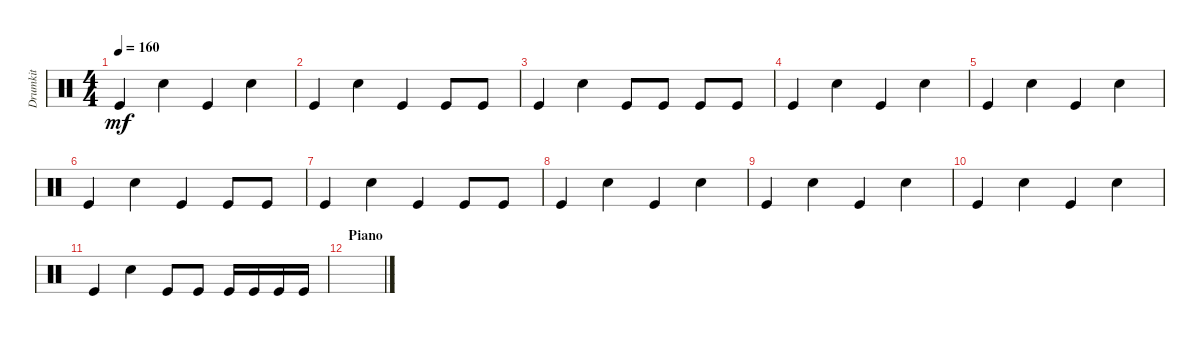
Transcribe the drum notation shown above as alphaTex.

\track ("Drumkit" "Drumkit") {instrument percussion}
\staff {score}
\articulation defaults
\ts (4 4)
\tempo 160
\clef neutral
\ks c "Kick (hit)".4{dy mf} "Hand Clap (hit)".4 "Kick (hit)".4 "Hand Clap (hit)".4
|
"Kick (hit)".4 "Hand Clap (hit)".4 "Kick (hit)".4 "Kick (hit)".8 "Kick (hit)".8 |
"Kick (hit)".4 "Hand Clap (hit)".4 "Kick (hit)".8 "Kick (hit)".8 "Kick (hit)".8 "Kick (hit)".8 |
"Kick (hit)".4 "Hand Clap (hit)".4 "Kick (hit)".4 "Hand Clap (hit)".4 |
"Kick (hit)".4 "Hand Clap (hit)".4 "Kick (hit)".4 "Hand Clap (hit)".4 |
"Kick (hit)".4 "Hand Clap (hit)".4 "Kick (hit)".4 "Kick (hit)".8 "Kick (hit)".8 |
"Kick (hit)".4 "Hand Clap (hit)".4 "Kick (hit)".4 "Kick (hit)".8 "Kick (hit)".8 |
"Kick (hit)".4 "Hand Clap (hit)".4 "Kick (hit)".4 "Hand Clap (hit)".4 |
"Kick (hit)".4 "Hand Clap (hit)".4 "Kick (hit)".4 "Hand Clap (hit)".4 |
"Kick (hit)".4 "Hand Clap (hit)".4 "Kick (hit)".4 "Hand Clap (hit)".4 |
"Kick (hit)".4 "Hand Clap (hit)".4 "Kick (hit)".8 "Kick (hit)".8 "Kick (hit)".16 "Kick (hit)".16 "Kick (hit)".16 "Kick (hit)".16 |
\section ("" "Piano")
